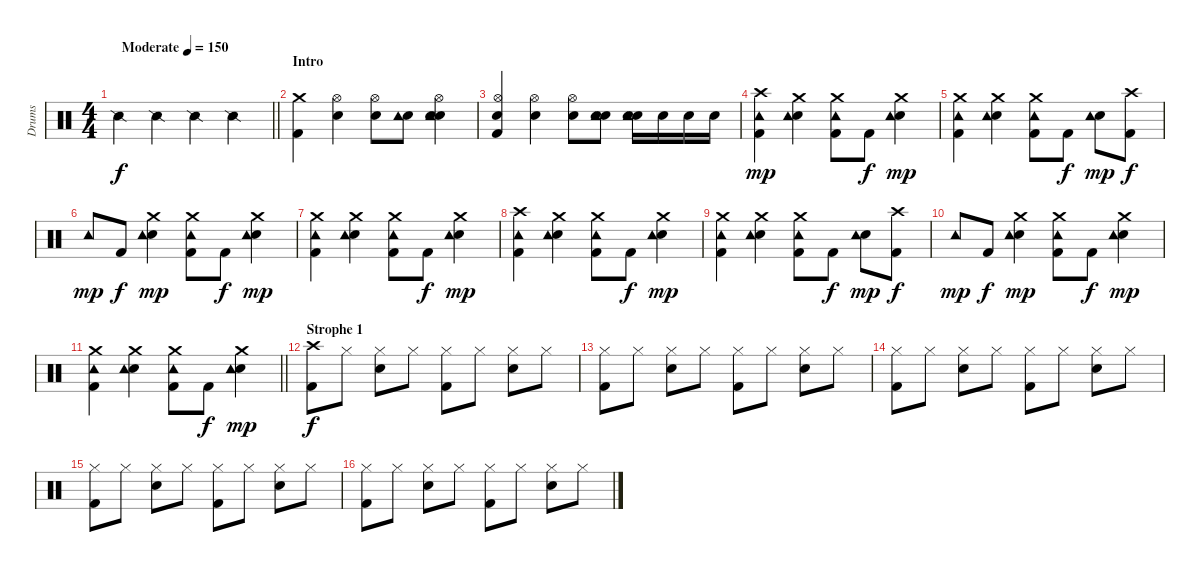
\track ("Drums" "Drums") {instrument percussion}
\staff {score}
\articulation defaults
\ts (4 4)
\tempo (150 "Moderate")
\clef neutral
\barLineRight lightlight
\ks c "Snare (side stick) 2".4{dy f} "Snare (side stick) 2".4 "Snare (side stick) 2".4 "Snare (side stick) 2".4
|
\section ("" "Intro")
("Crash medium (hit)" "Kick (hit) 2").4 ("Hi-Hat (open)" "Snare (hit) 2").4 ("Hi-Hat (open)" "Snare (hit) 2").8 ("Hand Clap (hit)" "Tambourine (hit)").8 ("Hi-Hat (open)" "Snare (hit) 2" "Hand Clap (hit)" "Tambourine (hit)").4 |
("Hi-Hat (open)" "Snare (hit) 2" "Kick (hit) 2").4 ("Hi-Hat (open)" "Snare (hit) 2").4 ("Hi-Hat (open)" "Snare (hit) 2").8 ("Snare (hit) 2" "Hand Clap (hit)" "Tambourine (hit)").8 ("Snare (hit) 2" "Hand Clap (hit)" "Tambourine (hit)").16 "Snare (hit) 2".16 "Snare (hit) 2".16 "Snare (hit) 2".16 |
("Crash high (hit)" "Kick (hit) 2" "Tambourine (hit)").4{dy mp} ("Crash medium (hit)" "Snare (hit) 2" "Tambourine (hit)").4 ("Crash medium (hit)" "Kick (hit) 2" "Tambourine (hit)").8 "Kick (hit) 2".8{dy f} ("Crash medium (hit)" "Snare (hit) 2" "Tambourine (hit)").4{dy mp} |
("Crash medium (hit)" "Kick (hit) 2" "Tambourine (hit)").4 ("Crash medium (hit)" "Snare (hit) 2" "Tambourine (hit)").4 ("Crash medium (hit)" "Kick (hit) 2" "Tambourine (hit)").8 "Kick (hit) 2".8{dy f} ("Snare (hit) 2" "Tambourine (hit)").8{dy mp} ("Crash high (hit)" "Kick (hit) 2").8{dy f} |
"Tambourine (hit)".8{dy mp} "Kick (hit) 2".8{dy f} ("Crash medium (hit)" "Snare (hit) 2" "Tambourine (hit)").4{dy mp} ("Crash medium (hit)" "Kick (hit) 2" "Tambourine (hit)").8 "Kick (hit) 2".8{dy f} ("Crash medium (hit)" "Snare (hit) 2" "Tambourine (hit)").4{dy mp} |
("Crash medium (hit)" "Kick (hit) 2" "Tambourine (hit)").4 ("Crash medium (hit)" "Snare (hit) 2" "Tambourine (hit)").4 ("Crash medium (hit)" "Kick (hit) 2" "Tambourine (hit)").8 "Kick (hit) 2".8{dy f} ("Crash medium (hit)" "Snare (hit) 2" "Tambourine (hit)").4{dy mp} |
("Crash high (hit)" "Kick (hit) 2" "Tambourine (hit)").4 ("Crash medium (hit)" "Snare (hit) 2" "Tambourine (hit)").4 ("Crash medium (hit)" "Kick (hit) 2" "Tambourine (hit)").8 "Kick (hit) 2".8{dy f} ("Crash medium (hit)" "Snare (hit) 2" "Tambourine (hit)").4{dy mp} |
("Crash medium (hit)" "Kick (hit) 2" "Tambourine (hit)").4 ("Crash medium (hit)" "Snare (hit) 2" "Tambourine (hit)").4 ("Crash medium (hit)" "Kick (hit) 2" "Tambourine (hit)").8 "Kick (hit) 2".8{dy f} ("Snare (hit) 2" "Tambourine (hit)").8{dy mp} ("Crash high (hit)" "Kick (hit) 2").8{dy f} |
"Tambourine (hit)".8{dy mp} "Kick (hit) 2".8{dy f} ("Crash medium (hit)" "Snare (hit) 2" "Tambourine (hit)").4{dy mp} ("Crash medium (hit)" "Kick (hit) 2" "Tambourine (hit)").8 "Kick (hit) 2".8{dy f} ("Crash medium (hit)" "Snare (hit) 2" "Tambourine (hit)").4{dy mp} |
\barLineRight lightlight
("Crash medium (hit)" "Kick (hit) 2" "Tambourine (hit)").4 ("Crash medium (hit)" "Snare (hit) 2" "Tambourine (hit)").4 ("Crash medium (hit)" "Kick (hit) 2" "Tambourine (hit)").8 "Kick (hit) 2".8{dy f} ("Crash medium (hit)" "Snare (hit) 2" "Tambourine (hit)").4{dy mp} |
\section ("" "Strophe 1")
("Crash high (hit)" "Kick (hit) 2").8{dy f} "Hi-Hat (closed)".8 ("Hi-Hat (closed)" "Snare (hit) 2").8 "Hi-Hat (closed)".8 ("Hi-Hat (closed)" "Kick (hit) 2").8 "Hi-Hat (closed)".8 ("Hi-Hat (closed)" "Snare (hit) 2").8 "Hi-Hat (closed)".8 |
("Hi-Hat (closed)" "Kick (hit) 2").8 "Hi-Hat (closed)".8 ("Hi-Hat (closed)" "Snare (hit) 2").8 "Hi-Hat (closed)".8 ("Hi-Hat (closed)" "Kick (hit) 2").8 "Hi-Hat (closed)".8 ("Hi-Hat (closed)" "Snare (hit) 2").8 "Hi-Hat (closed)".8 |
("Hi-Hat (closed)" "Kick (hit) 2").8 "Hi-Hat (closed)".8 ("Hi-Hat (closed)" "Snare (hit) 2").8 "Hi-Hat (closed)".8 ("Hi-Hat (closed)" "Kick (hit) 2").8 "Hi-Hat (closed)".8 ("Hi-Hat (closed)" "Snare (hit) 2").8 "Hi-Hat (closed)".8 |
("Hi-Hat (closed)" "Kick (hit) 2").8 "Hi-Hat (closed)".8 ("Hi-Hat (closed)" "Snare (hit) 2").8 "Hi-Hat (closed)".8 ("Hi-Hat (closed)" "Kick (hit) 2").8 "Hi-Hat (closed)".8 ("Hi-Hat (closed)" "Snare (hit) 2").8 "Hi-Hat (closed)".8 |
("Hi-Hat (closed)" "Kick (hit) 2").8 "Hi-Hat (closed)".8 ("Hi-Hat (closed)" "Snare (hit) 2").8 "Hi-Hat (closed)".8 ("Hi-Hat (closed)" "Kick (hit) 2").8 "Hi-Hat (closed)".8 ("Hi-Hat (closed)" "Snare (hit) 2").8 "Hi-Hat (closed)".8
